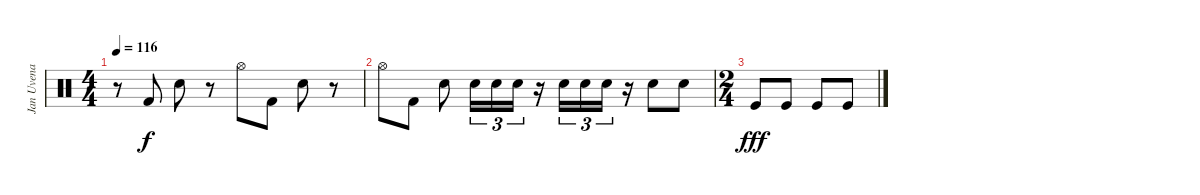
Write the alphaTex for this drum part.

\track ("Jan Uvena" "Jan Uvena") {instrument percussion}
\staff {score}
\articulation defaults
\ts (4 4)
\tempo 116
\clef neutral
\ks c
r.8{dy f} "Kick (hit) 2".8 "Snare (hit) 2".8 r.8 "Hi-Hat (open)".8 "Kick (hit) 2".8 "Snare (hit) 2".8 r.8 |
"Hi-Hat (open)".8 "Kick (hit) 2".8 "Snare (hit) 2".8 "Snare (hit) 2".16{tu (3 2)} "Snare (hit) 2".16{tu (3 2)} "Snare (hit) 2".16{tu (3 2)} r.16 "Snare (hit) 2".16{tu (3 2)} "Snare (hit) 2".16{tu (3 2)} "Snare (hit) 2".16{tu (3 2)} r.16 "Snare (hit) 2".8 "Snare (hit) 2".8 |
\ts (2 4)
"Kick (hit)".8{dy fff} "Kick (hit)".8 "Kick (hit)".8 "Kick (hit)".8
